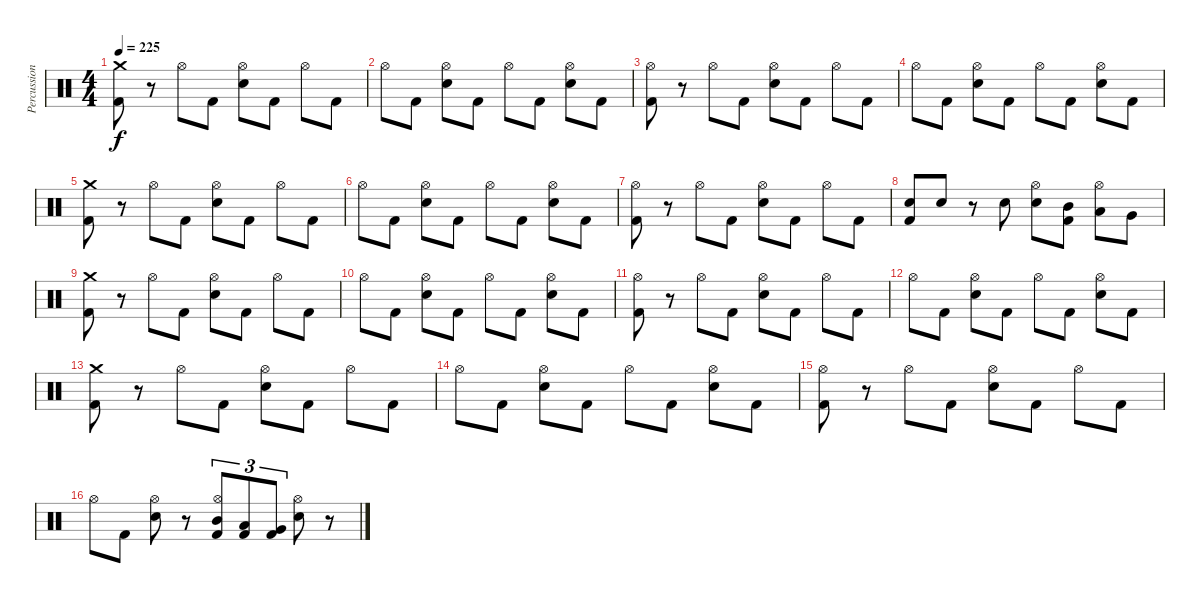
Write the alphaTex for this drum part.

\track ("Percussion" "Percussion") {instrument percussion}
\staff {score}
\articulation defaults
\ts (4 4)
\tempo 225
\clef neutral
\ks c
("Crash medium (hit)" "Kick (hit) 2").8{dy f} r.8 "Hi-Hat (open)".8 "Kick (hit) 2".8 ("Hi-Hat (open)" "Electric Snare (hit)").8 "Kick (hit) 2".8 "Hi-Hat (open)".8 "Kick (hit) 2".8 |
"Hi-Hat (open)".8 "Kick (hit) 2".8 ("Hi-Hat (open)" "Electric Snare (hit)").8 "Kick (hit) 2".8 "Hi-Hat (open)".8 "Kick (hit) 2".8 ("Hi-Hat (open)" "Electric Snare (hit)").8 "Kick (hit) 2".8 |
("Hi-Hat (open)" "Kick (hit) 2").8 r.8 "Hi-Hat (open)".8 "Kick (hit) 2".8 ("Hi-Hat (open)" "Electric Snare (hit)").8 "Kick (hit) 2".8 "Hi-Hat (open)".8 "Kick (hit) 2".8 |
"Hi-Hat (open)".8 "Kick (hit) 2".8 ("Hi-Hat (open)" "Electric Snare (hit)").8 "Kick (hit) 2".8 "Hi-Hat (open)".8 "Kick (hit) 2".8 ("Hi-Hat (open)" "Electric Snare (hit)").8 "Kick (hit) 2".8 |
("Crash medium (hit)" "Kick (hit) 2").8 r.8 "Hi-Hat (open)".8 "Kick (hit) 2".8 ("Hi-Hat (open)" "Electric Snare (hit)").8 "Kick (hit) 2".8 "Hi-Hat (open)".8 "Kick (hit) 2".8 |
"Hi-Hat (open)".8 "Kick (hit) 2".8 ("Hi-Hat (open)" "Electric Snare (hit)").8 "Kick (hit) 2".8 "Hi-Hat (open)".8 "Kick (hit) 2".8 ("Hi-Hat (open)" "Electric Snare (hit)").8 "Kick (hit) 2".8 |
("Hi-Hat (open)" "Kick (hit) 2").8 r.8 "Hi-Hat (open)".8 "Kick (hit) 2".8 ("Hi-Hat (open)" "Electric Snare (hit)").8 "Kick (hit) 2".8 "Hi-Hat (open)".8 "Kick (hit) 2".8 |
("Electric Snare (hit)" "Kick (hit) 2").8 "Electric Snare (hit)".8 r.8 "Electric Snare (hit)".8 ("Hi-Hat (open)" "Electric Snare (hit)").8 ("Mid Tom (hit)" "Kick (hit) 2").8 ("Hi-Hat (open)" "Low Tom (hit)").8 "Very Low Tom (hit)".8 |
("Crash medium (hit)" "Kick (hit) 2").8 r.8 "Hi-Hat (open)".8 "Kick (hit) 2".8 ("Hi-Hat (open)" "Electric Snare (hit)").8 "Kick (hit) 2".8 "Hi-Hat (open)".8 "Kick (hit) 2".8 |
"Hi-Hat (open)".8 "Kick (hit) 2".8 ("Hi-Hat (open)" "Electric Snare (hit)").8 "Kick (hit) 2".8 "Hi-Hat (open)".8 "Kick (hit) 2".8 ("Hi-Hat (open)" "Electric Snare (hit)").8 "Kick (hit) 2".8 |
("Hi-Hat (open)" "Kick (hit) 2").8 r.8 "Hi-Hat (open)".8 "Kick (hit) 2".8 ("Hi-Hat (open)" "Electric Snare (hit)").8 "Kick (hit) 2".8 "Hi-Hat (open)".8 "Kick (hit) 2".8 |
"Hi-Hat (open)".8 "Kick (hit) 2".8 ("Hi-Hat (open)" "Electric Snare (hit)").8 "Kick (hit) 2".8 "Hi-Hat (open)".8 "Kick (hit) 2".8 ("Hi-Hat (open)" "Electric Snare (hit)").8 "Kick (hit) 2".8 |
("Crash medium (hit)" "Kick (hit) 2").8 r.8 "Hi-Hat (open)".8 "Kick (hit) 2".8 ("Hi-Hat (open)" "Electric Snare (hit)").8 "Kick (hit) 2".8 "Hi-Hat (open)".8 "Kick (hit) 2".8 |
"Hi-Hat (open)".8 "Kick (hit) 2".8 ("Hi-Hat (open)" "Electric Snare (hit)").8 "Kick (hit) 2".8 "Hi-Hat (open)".8 "Kick (hit) 2".8 ("Hi-Hat (open)" "Electric Snare (hit)").8 "Kick (hit) 2".8 |
("Hi-Hat (open)" "Kick (hit) 2").8 r.8 "Hi-Hat (open)".8 "Kick (hit) 2".8 ("Hi-Hat (open)" "Electric Snare (hit)").8 "Kick (hit) 2".8 "Hi-Hat (open)".8 "Kick (hit) 2".8 |
"Hi-Hat (open)".8 "Kick (hit) 2".8 ("Hi-Hat (open)" "Electric Snare (hit)").8 r.8 ("Hi-Hat (open)" "Mid Tom (hit)" "Kick (hit) 2").8{tu (3 2)} ("Low Tom (hit)" "Kick (hit) 2").8{tu (3 2)} ("Very Low Tom (hit)" "Kick (hit) 2").8{tu (3 2)} ("Hi-Hat (open)" "Electric Snare (hit)").8 r.8
